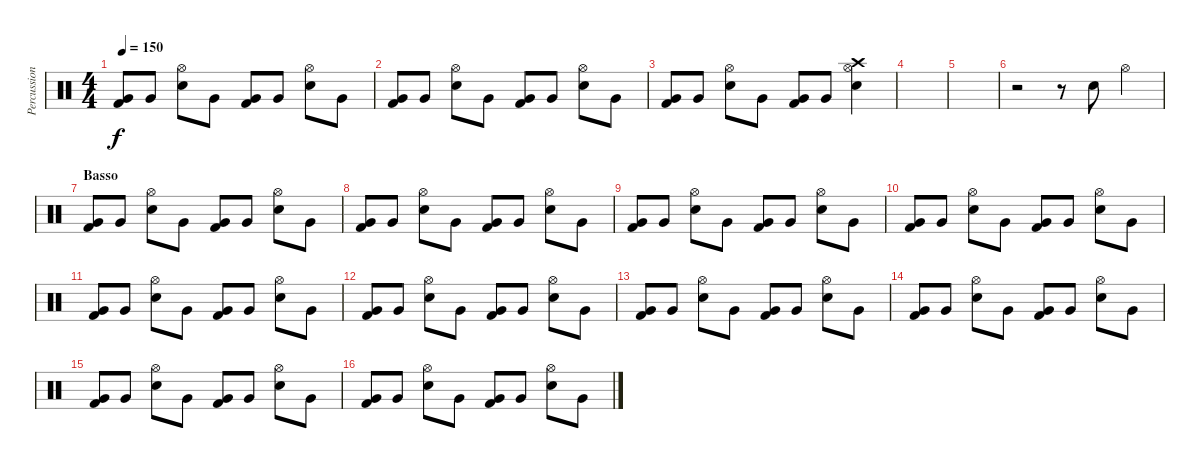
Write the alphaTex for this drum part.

\track ("Percussion" "Percussion") {instrument percussion}
\staff {score}
\articulation defaults
\ts (4 4)
\tempo 150
\clef neutral
\ks c
("Very Low Tom (hit)" "Kick (hit) 2").8{dy f} "Very Low Tom (hit)".8 ("Hi-Hat (open)" "Snare (hit) 2").8 "Very Low Tom (hit)".8 ("Very Low Tom (hit)" "Kick (hit) 2").8 "Very Low Tom (hit)".8 ("Hi-Hat (open)" "Snare (hit) 2").8 "Very Low Tom (hit)".8 |
("Very Low Tom (hit)" "Kick (hit) 2").8 "Very Low Tom (hit)".8 ("Hi-Hat (open)" "Snare (hit) 2").8 "Very Low Tom (hit)".8 ("Very Low Tom (hit)" "Kick (hit) 2").8 "Very Low Tom (hit)".8 ("Hi-Hat (open)" "Snare (hit) 2").8 "Very Low Tom (hit)".8 |
("Very Low Tom (hit)" "Kick (hit) 2").8 "Very Low Tom (hit)".8 ("Hi-Hat (open)" "Snare (hit) 2").8 "Very Low Tom (hit)".8 ("Very Low Tom (hit)" "Kick (hit) 2").8 "Very Low Tom (hit)".8 ("Crash high (hit)" "Hi-Hat (open)" "Snare (hit) 2").4 |
|
|
r.2 r.8 "Snare (hit) 2".8 "Hi-Hat (open)".4 |
\section ("" "Basso")
("Very Low Tom (hit)" "Kick (hit) 2").8 "Very Low Tom (hit)".8 ("Hi-Hat (open)" "Snare (hit) 2").8 "Very Low Tom (hit)".8 ("Very Low Tom (hit)" "Kick (hit) 2").8 "Very Low Tom (hit)".8 ("Hi-Hat (open)" "Snare (hit) 2").8 "Very Low Tom (hit)".8 |
("Very Low Tom (hit)" "Kick (hit) 2").8 "Very Low Tom (hit)".8 ("Hi-Hat (open)" "Snare (hit) 2").8 "Very Low Tom (hit)".8 ("Very Low Tom (hit)" "Kick (hit) 2").8 "Very Low Tom (hit)".8 ("Hi-Hat (open)" "Snare (hit) 2").8 "Very Low Tom (hit)".8 |
("Very Low Tom (hit)" "Kick (hit) 2").8 "Very Low Tom (hit)".8 ("Hi-Hat (open)" "Snare (hit) 2").8 "Very Low Tom (hit)".8 ("Very Low Tom (hit)" "Kick (hit) 2").8 "Very Low Tom (hit)".8 ("Hi-Hat (open)" "Snare (hit) 2").8 "Very Low Tom (hit)".8 |
("Very Low Tom (hit)" "Kick (hit) 2").8 "Very Low Tom (hit)".8 ("Hi-Hat (open)" "Snare (hit) 2").8 "Very Low Tom (hit)".8 ("Very Low Tom (hit)" "Kick (hit) 2").8 "Very Low Tom (hit)".8 ("Hi-Hat (open)" "Snare (hit) 2").8 "Very Low Tom (hit)".8 |
("Very Low Tom (hit)" "Kick (hit) 2").8 "Very Low Tom (hit)".8 ("Hi-Hat (open)" "Snare (hit) 2").8 "Very Low Tom (hit)".8 ("Very Low Tom (hit)" "Kick (hit) 2").8 "Very Low Tom (hit)".8 ("Hi-Hat (open)" "Snare (hit) 2").8 "Very Low Tom (hit)".8 |
("Very Low Tom (hit)" "Kick (hit) 2").8 "Very Low Tom (hit)".8 ("Hi-Hat (open)" "Snare (hit) 2").8 "Very Low Tom (hit)".8 ("Very Low Tom (hit)" "Kick (hit) 2").8 "Very Low Tom (hit)".8 ("Hi-Hat (open)" "Snare (hit) 2").8 "Very Low Tom (hit)".8 |
("Very Low Tom (hit)" "Kick (hit) 2").8 "Very Low Tom (hit)".8 ("Hi-Hat (open)" "Snare (hit) 2").8 "Very Low Tom (hit)".8 ("Very Low Tom (hit)" "Kick (hit) 2").8 "Very Low Tom (hit)".8 ("Hi-Hat (open)" "Snare (hit) 2").8 "Very Low Tom (hit)".8 |
("Very Low Tom (hit)" "Kick (hit) 2").8 "Very Low Tom (hit)".8 ("Hi-Hat (open)" "Snare (hit) 2").8 "Very Low Tom (hit)".8 ("Very Low Tom (hit)" "Kick (hit) 2").8 "Very Low Tom (hit)".8 ("Hi-Hat (open)" "Snare (hit) 2").8 "Very Low Tom (hit)".8 |
("Very Low Tom (hit)" "Kick (hit) 2").8 "Very Low Tom (hit)".8 ("Hi-Hat (open)" "Snare (hit) 2").8 "Very Low Tom (hit)".8 ("Very Low Tom (hit)" "Kick (hit) 2").8 "Very Low Tom (hit)".8 ("Hi-Hat (open)" "Snare (hit) 2").8 "Very Low Tom (hit)".8 |
("Very Low Tom (hit)" "Kick (hit) 2").8 "Very Low Tom (hit)".8 ("Hi-Hat (open)" "Snare (hit) 2").8 "Very Low Tom (hit)".8 ("Very Low Tom (hit)" "Kick (hit) 2").8 "Very Low Tom (hit)".8 ("Hi-Hat (open)" "Snare (hit) 2").8 "Very Low Tom (hit)".8
